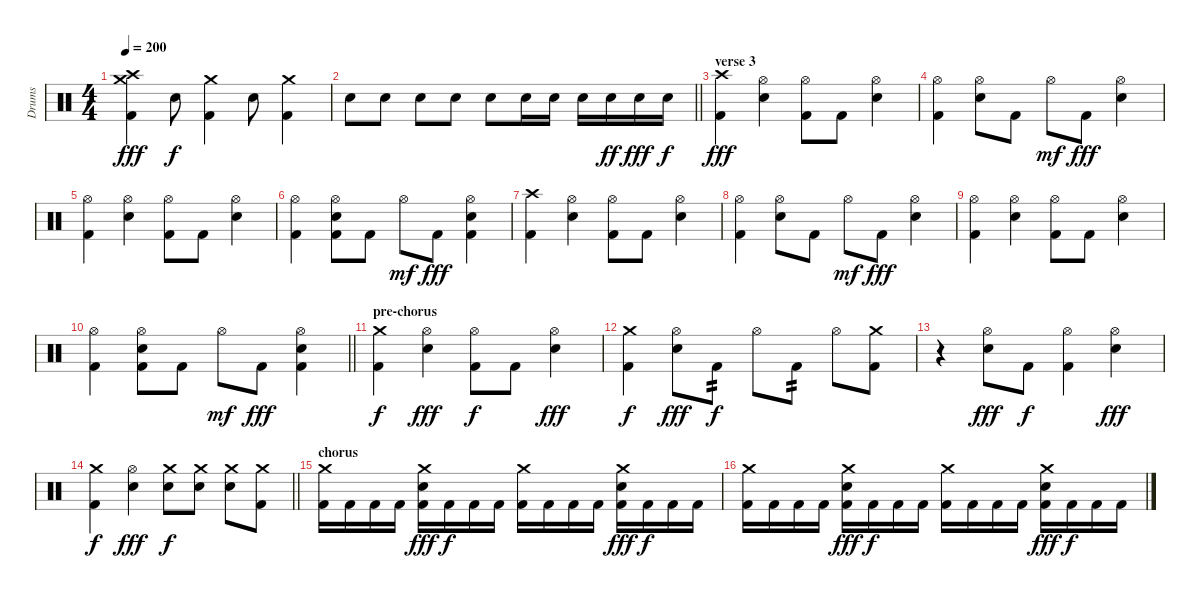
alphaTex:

\track ("Drums" "Drums") {instrument percussion}
\staff {score}
\articulation defaults
\ts (4 4)
\tempo 200
\clef neutral
\ks c
("Crash medium (hit)" "Crash high (hit)" "Kick (hit) 2").4{dy fff} "Electric Snare (hit)".8{dy f} ("Crash medium (hit)" "Kick (hit) 2").4 "Electric Snare (hit)".8 ("Crash medium (hit)" "Kick (hit) 2").4 |
\barLineRight lightlight "Electric Snare (hit)".8 "Electric Snare (hit)".8 "Electric Snare (hit)".8 "Electric Snare (hit)".8 "Electric Snare (hit)".8 "Electric Snare (hit)".16 "Electric Snare (hit)".16 "Electric Snare (hit)".16 "Electric Snare (hit)".16{dy ff} "Electric Snare (hit)".16{dy fff} "Electric Snare (hit)".16{dy f}
|
\section ("" "verse 3")
("Crash high (hit)" "Kick (hit) 2").4{dy fff} ("Hi-Hat (open)" "Electric Snare (hit)").4 ("Hi-Hat (open)" "Kick (hit) 2").8 "Kick (hit) 2".8 ("Hi-Hat (open)" "Electric Snare (hit)").4 |
("Hi-Hat (open)" "Kick (hit) 2").4 ("Hi-Hat (open)" "Electric Snare (hit)").8 "Kick (hit) 2".8 "Hi-Hat (open)".8{dy mf} "Kick (hit) 2".8{dy fff} ("Hi-Hat (open)" "Electric Snare (hit)").4 |
("Hi-Hat (open)" "Kick (hit) 2").4 ("Hi-Hat (open)" "Electric Snare (hit)").4 ("Hi-Hat (open)" "Kick (hit) 2").8 "Kick (hit) 2".8 ("Hi-Hat (open)" "Electric Snare (hit)").4 |
("Hi-Hat (open)" "Kick (hit) 2").4 ("Hi-Hat (open)" "Electric Snare (hit)" "Kick (hit) 2").8 "Kick (hit) 2".8 "Hi-Hat (open)".8{dy mf} "Kick (hit) 2".8{dy fff} ("Hi-Hat (open)" "Electric Snare (hit)" "Kick (hit) 2").4 |
("Crash high (hit)" "Kick (hit) 2").4 ("Hi-Hat (open)" "Electric Snare (hit)").4 ("Hi-Hat (open)" "Kick (hit) 2").8 "Kick (hit) 2".8 ("Hi-Hat (open)" "Electric Snare (hit)").4 |
("Hi-Hat (open)" "Kick (hit) 2").4 ("Hi-Hat (open)" "Electric Snare (hit)").8 "Kick (hit) 2".8 "Hi-Hat (open)".8{dy mf} "Kick (hit) 2".8{dy fff} ("Hi-Hat (open)" "Electric Snare (hit)").4 |
("Hi-Hat (open)" "Kick (hit) 2").4 ("Hi-Hat (open)" "Electric Snare (hit)").4 ("Hi-Hat (open)" "Kick (hit) 2").8 "Kick (hit) 2".8 ("Hi-Hat (open)" "Electric Snare (hit)").4 |
\barLineRight lightlight
("Hi-Hat (open)" "Kick (hit) 2").4 ("Hi-Hat (open)" "Electric Snare (hit)" "Kick (hit) 2").8 "Kick (hit) 2".8 "Hi-Hat (open)".8{dy mf} "Kick (hit) 2".8{dy fff} ("Hi-Hat (open)" "Electric Snare (hit)" "Kick (hit) 2").4 |
\section ("" "pre-chorus")
("Crash medium (hit)" "Kick (hit) 2").4{dy f} ("Hi-Hat (open)" "Electric Snare (hit)").4{dy fff} ("Hi-Hat (open)" "Kick (hit) 2").8{dy f} "Kick (hit) 2".8 ("Hi-Hat (open)" "Electric Snare (hit)").4{dy fff} |
("Crash medium (hit)" "Kick (hit) 2").4{dy f} ("Hi-Hat (open)" "Electric Snare (hit)").8{dy fff} "Kick (hit) 2".8{tp 2 dy f} "Hi-Hat (open)".8 "Kick (hit) 2".8{tp 2} "Hi-Hat (open)".8 ("Crash medium (hit)" "Kick (hit) 2").8 |
r.4 ("Hi-Hat (open)" "Electric Snare (hit)").8{dy fff} "Kick (hit) 2".8{dy f} ("Hi-Hat (open)" "Kick (hit) 2").4 ("Hi-Hat (open)" "Electric Snare (hit)").4{dy fff} |
\barLineRight lightlight
("Crash medium (hit)" "Kick (hit) 2").4{dy f} ("Hi-Hat (open)" "Electric Snare (hit)").4{dy fff} ("Crash medium (hit)" "Electric Snare (hit)").8{dy f} ("Crash medium (hit)" "Electric Snare (hit)").8 ("Crash medium (hit)" "Electric Snare (hit)").8 ("Crash medium (hit)" "Kick (hit) 2").8 |
\section ("" "chorus")
("Crash medium (hit)" "Kick (hit) 2").16 "Kick (hit) 2".16 "Kick (hit) 2".16 "Kick (hit) 2".16 ("Crash medium (hit)" "Electric Snare (hit)" "Kick (hit) 2").16{dy fff} "Kick (hit) 2".16{dy f} "Kick (hit) 2".16 "Kick (hit) 2".16 ("Crash medium (hit)" "Kick (hit) 2").16 "Kick (hit) 2".16 "Kick (hit) 2".16 "Kick (hit) 2".16 ("Crash medium (hit)" "Electric Snare (hit)" "Kick (hit) 2").16{dy fff} "Kick (hit) 2".16{dy f} "Kick (hit) 2".16 "Kick (hit) 2".16 |
("Crash medium (hit)" "Kick (hit) 2").16 "Kick (hit) 2".16 "Kick (hit) 2".16 "Kick (hit) 2".16 ("Crash medium (hit)" "Electric Snare (hit)" "Kick (hit) 2").16{dy fff} "Kick (hit) 2".16{dy f} "Kick (hit) 2".16 "Kick (hit) 2".16 ("Crash medium (hit)" "Kick (hit) 2").16 "Kick (hit) 2".16 "Kick (hit) 2".16 "Kick (hit) 2".16 ("Crash medium (hit)" "Electric Snare (hit)" "Kick (hit) 2").16{dy fff} "Kick (hit) 2".16{dy f} "Kick (hit) 2".16 "Kick (hit) 2".16
